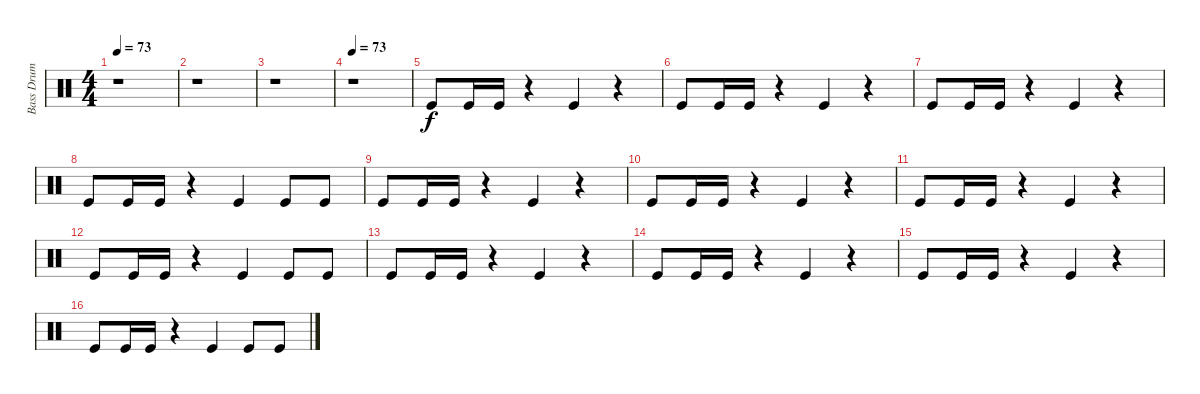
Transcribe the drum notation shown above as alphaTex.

\track ("Bass Drum" "Bass Drum") {instrument percussion}
\staff {score}
\articulation defaults
\ts (4 4)
\tempo 73
\clef neutral
\ks c
r.1{dy f} |
r.1 |
r.1 |
\tempo 73
r.1 |
"Kick (hit)".8 "Kick (hit)".16 "Kick (hit)".16 r.4 "Kick (hit)".4 r.4 |
"Kick (hit)".8 "Kick (hit)".16 "Kick (hit)".16 r.4 "Kick (hit)".4 r.4 |
"Kick (hit)".8 "Kick (hit)".16 "Kick (hit)".16 r.4 "Kick (hit)".4 r.4 |
"Kick (hit)".8 "Kick (hit)".16 "Kick (hit)".16 r.4 "Kick (hit)".4 "Kick (hit)".8 "Kick (hit)".8 |
"Kick (hit)".8 "Kick (hit)".16 "Kick (hit)".16 r.4 "Kick (hit)".4 r.4 |
"Kick (hit)".8 "Kick (hit)".16 "Kick (hit)".16 r.4 "Kick (hit)".4 r.4 |
"Kick (hit)".8 "Kick (hit)".16 "Kick (hit)".16 r.4 "Kick (hit)".4 r.4 |
"Kick (hit)".8 "Kick (hit)".16 "Kick (hit)".16 r.4 "Kick (hit)".4 "Kick (hit)".8 "Kick (hit)".8 |
"Kick (hit)".8 "Kick (hit)".16 "Kick (hit)".16 r.4 "Kick (hit)".4 r.4 |
"Kick (hit)".8 "Kick (hit)".16 "Kick (hit)".16 r.4 "Kick (hit)".4 r.4 |
"Kick (hit)".8 "Kick (hit)".16 "Kick (hit)".16 r.4 "Kick (hit)".4 r.4 |
"Kick (hit)".8 "Kick (hit)".16 "Kick (hit)".16 r.4 "Kick (hit)".4 "Kick (hit)".8 "Kick (hit)".8
